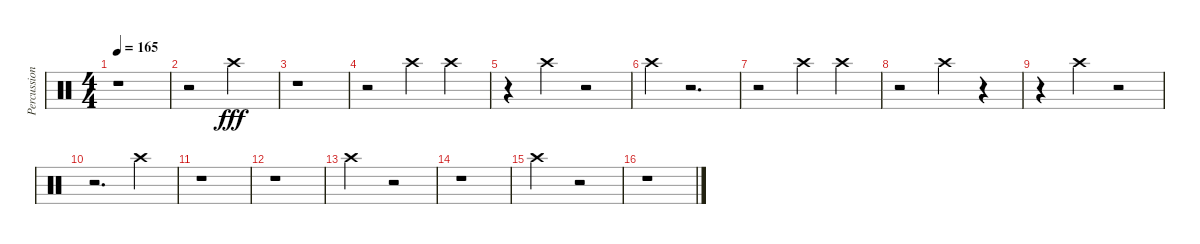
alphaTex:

\track ("Percussion" "Percussion") {instrument percussion}
\staff {score}
\articulation defaults
\ts (4 4)
\tempo 165
\clef neutral
\ks c
r.1{dy fff} |
r.2 "Crash high (hit)".2 |
r.1 |
r.2 "Crash high (hit)".4 "Crash high (hit)".4 |
r.4 "Crash high (hit)".4 r.2 |
"Crash high (hit)".4 r.2{d} |
r.2 "Crash high (hit)".4 "Crash high (hit)".4 |
r.2 "Crash high (hit)".4 r.4 |
r.4 "Crash high (hit)".4 r.2 |
r.2{d} "Crash high (hit)".4 |
r.1 |
r.1 |
"Crash high (hit)".2 r.2 |
r.1 |
"Crash high (hit)".2 r.2 |
r.1
